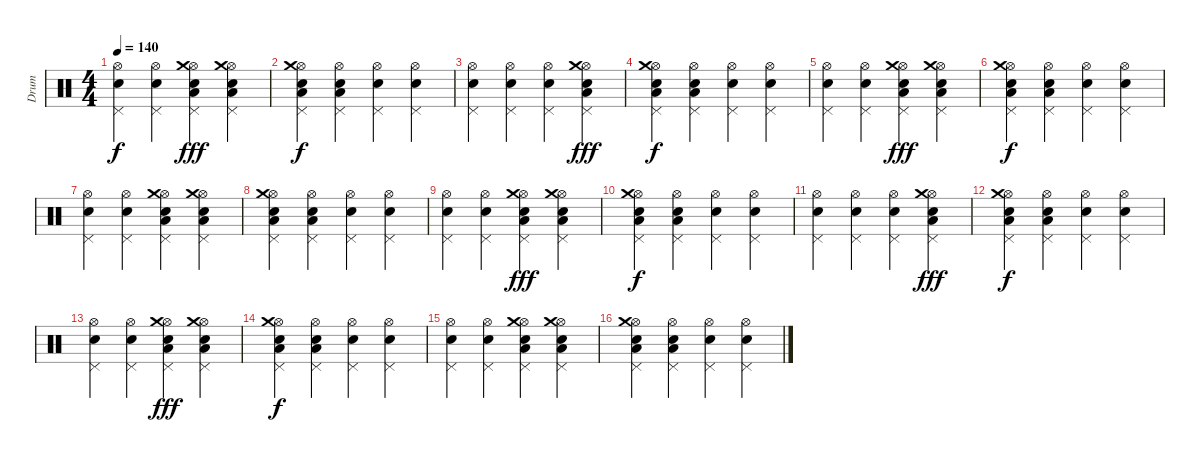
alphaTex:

\track ("Drum" "Drum") {instrument percussion}
\staff {score}
\articulation defaults
\ts (4 4)
\tempo 140
\clef neutral
\ks c
("Hi-Hat (open)" "Snare (hit) 2" "Pedal Hi-Hat (hit)").4{dy f} ("Hi-Hat (open)" "Snare (hit) 2" "Pedal Hi-Hat (hit)").4 ("Hi-Hat (open)" "Low Tom (hit)" "Snare (hit) 2" "Crash medium (hit)" "Pedal Hi-Hat (hit)").4{dy fff} ("Hi-Hat (open)" "Low Tom (hit)" "Snare (hit) 2" "Crash medium (hit)" "Pedal Hi-Hat (hit)").4 |
("Hi-Hat (open)" "Low Tom (hit)" "Snare (hit) 2" "Crash medium (hit)" "Pedal Hi-Hat (hit)").4{dy f} ("Hi-Hat (open)" "Low Tom (hit)" "Snare (hit) 2" "Pedal Hi-Hat (hit)").4 ("Hi-Hat (open)" "Snare (hit) 2" "Pedal Hi-Hat (hit)").4 ("Hi-Hat (open)" "Snare (hit) 2" "Pedal Hi-Hat (hit)").4 |
("Hi-Hat (open)" "Snare (hit) 2" "Pedal Hi-Hat (hit)").4 ("Hi-Hat (open)" "Snare (hit) 2" "Pedal Hi-Hat (hit)").4 ("Hi-Hat (open)" "Snare (hit) 2" "Pedal Hi-Hat (hit)").4 ("Hi-Hat (open)" "Low Tom (hit)" "Snare (hit) 2" "Crash medium (hit)" "Pedal Hi-Hat (hit)").4{dy fff} |
("Hi-Hat (open)" "Low Tom (hit)" "Snare (hit) 2" "Crash medium (hit)" "Pedal Hi-Hat (hit)").4{dy f} ("Hi-Hat (open)" "Low Tom (hit)" "Snare (hit) 2" "Pedal Hi-Hat (hit)").4 ("Hi-Hat (open)" "Snare (hit) 2" "Pedal Hi-Hat (hit)").4 ("Hi-Hat (open)" "Snare (hit) 2" "Pedal Hi-Hat (hit)").4 |
("Hi-Hat (open)" "Snare (hit) 2" "Pedal Hi-Hat (hit)").4 ("Hi-Hat (open)" "Snare (hit) 2" "Pedal Hi-Hat (hit)").4 ("Hi-Hat (open)" "Low Tom (hit)" "Snare (hit) 2" "Crash medium (hit)" "Pedal Hi-Hat (hit)").4{dy fff} ("Hi-Hat (open)" "Low Tom (hit)" "Snare (hit) 2" "Crash medium (hit)" "Pedal Hi-Hat (hit)").4 |
("Hi-Hat (open)" "Low Tom (hit)" "Snare (hit) 2" "Crash medium (hit)" "Pedal Hi-Hat (hit)").4{dy f} ("Hi-Hat (open)" "Low Tom (hit)" "Snare (hit) 2" "Pedal Hi-Hat (hit)").4 ("Hi-Hat (open)" "Snare (hit) 2" "Pedal Hi-Hat (hit)").4 ("Hi-Hat (open)" "Snare (hit) 2" "Pedal Hi-Hat (hit)").4 |
("Hi-Hat (open)" "Snare (hit) 2" "Pedal Hi-Hat (hit)").4 ("Hi-Hat (open)" "Snare (hit) 2" "Pedal Hi-Hat (hit)").4 ("Hi-Hat (open)" "Low Tom (hit)" "Snare (hit) 2" "Crash medium (hit)" "Pedal Hi-Hat (hit)").4 ("Hi-Hat (open)" "Low Tom (hit)" "Snare (hit) 2" "Crash medium (hit)" "Pedal Hi-Hat (hit)").4 |
("Hi-Hat (open)" "Low Tom (hit)" "Snare (hit) 2" "Crash medium (hit)" "Pedal Hi-Hat (hit)").4 ("Hi-Hat (open)" "Low Tom (hit)" "Snare (hit) 2" "Pedal Hi-Hat (hit)").4 ("Hi-Hat (open)" "Snare (hit) 2" "Pedal Hi-Hat (hit)").4 ("Hi-Hat (open)" "Snare (hit) 2" "Pedal Hi-Hat (hit)").4 |
("Hi-Hat (open)" "Snare (hit) 2" "Pedal Hi-Hat (hit)").4 ("Hi-Hat (open)" "Snare (hit) 2" "Pedal Hi-Hat (hit)").4 ("Hi-Hat (open)" "Low Tom (hit)" "Snare (hit) 2" "Crash medium (hit)" "Pedal Hi-Hat (hit)").4{dy fff} ("Hi-Hat (open)" "Low Tom (hit)" "Snare (hit) 2" "Crash medium (hit)" "Pedal Hi-Hat (hit)").4 |
("Hi-Hat (open)" "Low Tom (hit)" "Snare (hit) 2" "Crash medium (hit)" "Pedal Hi-Hat (hit)").4{dy f} ("Hi-Hat (open)" "Low Tom (hit)" "Snare (hit) 2" "Pedal Hi-Hat (hit)").4 ("Hi-Hat (open)" "Snare (hit) 2" "Pedal Hi-Hat (hit)").4 ("Hi-Hat (open)" "Snare (hit) 2" "Pedal Hi-Hat (hit)").4 |
("Hi-Hat (open)" "Snare (hit) 2" "Pedal Hi-Hat (hit)").4 ("Hi-Hat (open)" "Snare (hit) 2" "Pedal Hi-Hat (hit)").4 ("Hi-Hat (open)" "Snare (hit) 2" "Pedal Hi-Hat (hit)").4 ("Hi-Hat (open)" "Low Tom (hit)" "Snare (hit) 2" "Crash medium (hit)" "Pedal Hi-Hat (hit)").4{dy fff} |
("Hi-Hat (open)" "Low Tom (hit)" "Snare (hit) 2" "Crash medium (hit)" "Pedal Hi-Hat (hit)").4{dy f} ("Hi-Hat (open)" "Low Tom (hit)" "Snare (hit) 2" "Pedal Hi-Hat (hit)").4 ("Hi-Hat (open)" "Snare (hit) 2" "Pedal Hi-Hat (hit)").4 ("Hi-Hat (open)" "Snare (hit) 2" "Pedal Hi-Hat (hit)").4 |
("Hi-Hat (open)" "Snare (hit) 2" "Pedal Hi-Hat (hit)").4 ("Hi-Hat (open)" "Snare (hit) 2" "Pedal Hi-Hat (hit)").4 ("Hi-Hat (open)" "Low Tom (hit)" "Snare (hit) 2" "Crash medium (hit)" "Pedal Hi-Hat (hit)").4{dy fff} ("Hi-Hat (open)" "Low Tom (hit)" "Snare (hit) 2" "Crash medium (hit)" "Pedal Hi-Hat (hit)").4 |
("Hi-Hat (open)" "Low Tom (hit)" "Snare (hit) 2" "Crash medium (hit)" "Pedal Hi-Hat (hit)").4{dy f} ("Hi-Hat (open)" "Low Tom (hit)" "Snare (hit) 2" "Pedal Hi-Hat (hit)").4 ("Hi-Hat (open)" "Snare (hit) 2" "Pedal Hi-Hat (hit)").4 ("Hi-Hat (open)" "Snare (hit) 2" "Pedal Hi-Hat (hit)").4 |
("Hi-Hat (open)" "Snare (hit) 2" "Pedal Hi-Hat (hit)").4 ("Hi-Hat (open)" "Snare (hit) 2" "Pedal Hi-Hat (hit)").4 ("Hi-Hat (open)" "Low Tom (hit)" "Snare (hit) 2" "Crash medium (hit)" "Pedal Hi-Hat (hit)").4 ("Hi-Hat (open)" "Low Tom (hit)" "Snare (hit) 2" "Crash medium (hit)" "Pedal Hi-Hat (hit)").4 |
("Hi-Hat (open)" "Low Tom (hit)" "Snare (hit) 2" "Crash medium (hit)" "Pedal Hi-Hat (hit)").4 ("Hi-Hat (open)" "Low Tom (hit)" "Snare (hit) 2" "Pedal Hi-Hat (hit)").4 ("Hi-Hat (open)" "Snare (hit) 2" "Pedal Hi-Hat (hit)").4 ("Hi-Hat (open)" "Snare (hit) 2" "Pedal Hi-Hat (hit)").4
